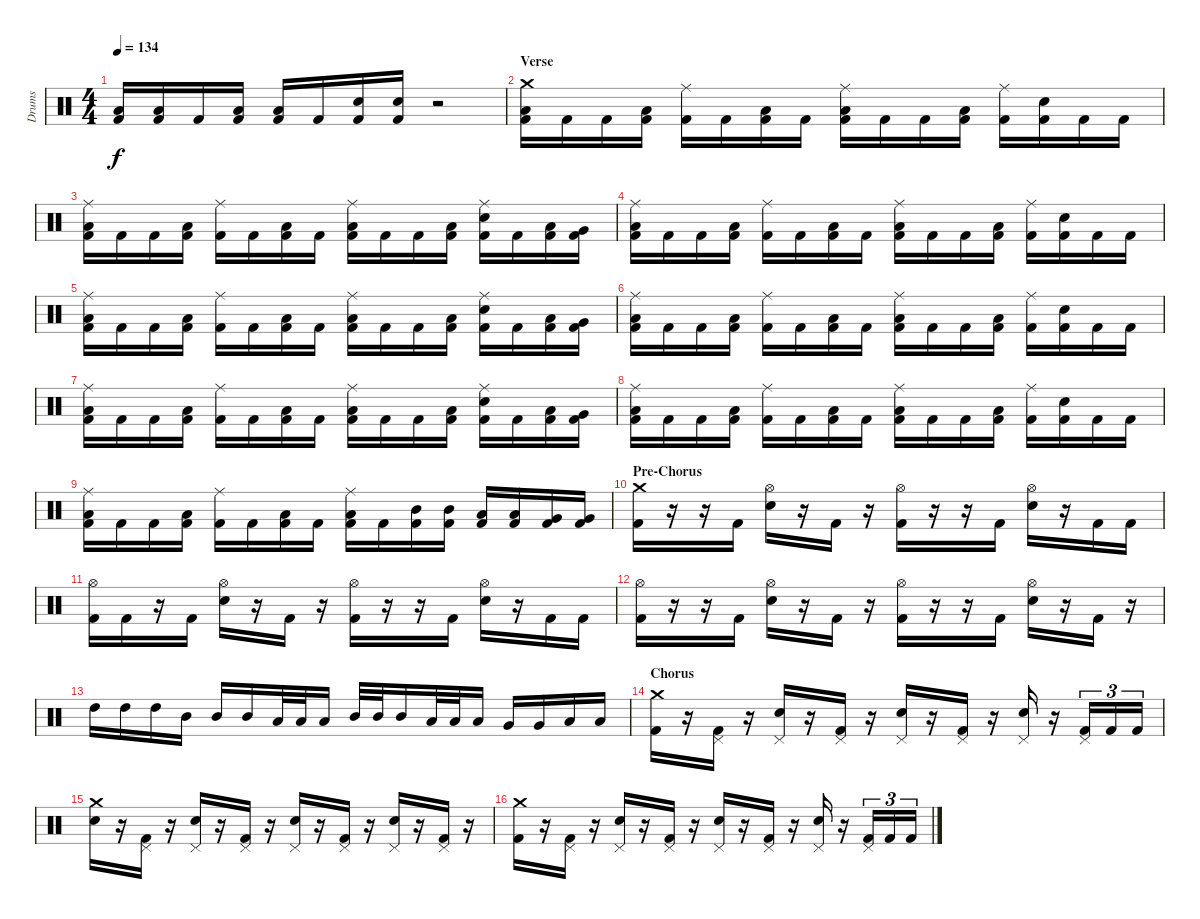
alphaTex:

\track ("Drums" "Drums") {instrument percussion}
\staff {score}
\articulation defaults
\ts (4 4)
\tempo 134
\clef neutral
\ks c
("Low Floor Tom (hit)" "Kick (hit) 2").16{dy f} ("Low Floor Tom (hit)" "Kick (hit) 2").16 "Kick (hit) 2".16 ("Low Floor Tom (hit)" "Kick (hit) 2").16 ("Low Floor Tom (hit)" "Kick (hit) 2").16 "Kick (hit) 2".16 ("Electric Snare (hit)" "Kick (hit) 2").16 ("Electric Snare (hit)" "Kick (hit) 2").16 r.2 |
\section ("" "Verse")
("Crash medium (hit)" "Low Floor Tom (hit)" "Kick (hit) 2").16 "Kick (hit) 2".16 "Kick (hit) 2".16 ("Low Floor Tom (hit)" "Kick (hit) 2").16 ("Ride (middle)" "Kick (hit) 2").16 "Kick (hit) 2".16 ("Low Floor Tom (hit)" "Kick (hit) 2").16 "Kick (hit) 2".16 ("Ride (middle)" "Low Floor Tom (hit)" "Kick (hit) 2").16 "Kick (hit) 2".16 "Kick (hit) 2".16 ("Low Floor Tom (hit)" "Kick (hit) 2").16 ("Ride (middle)" "Kick (hit) 2").16 ("Electric Snare (hit)" "Kick (hit) 2").16 "Kick (hit) 2".16 "Kick (hit) 2".16 |
("Ride (middle)" "Low Floor Tom (hit)" "Kick (hit) 2").16 "Kick (hit) 2".16 "Kick (hit) 2".16 ("Low Floor Tom (hit)" "Kick (hit) 2").16 ("Ride (middle)" "Kick (hit) 2").16 "Kick (hit) 2".16 ("Low Floor Tom (hit)" "Kick (hit) 2").16 "Kick (hit) 2".16 ("Ride (middle)" "Low Floor Tom (hit)" "Kick (hit) 2").16 "Kick (hit) 2".16 "Kick (hit) 2".16 ("Low Floor Tom (hit)" "Kick (hit) 2").16 ("Ride (middle)" "Electric Snare (hit)" "Kick (hit) 2").16 "Kick (hit) 2".16 ("Low Tom (hit)" "Kick (hit) 2").16 ("Very Low Tom (hit)" "Kick (hit) 2").16 |
("Ride (middle)" "Low Floor Tom (hit)" "Kick (hit) 2").16 "Kick (hit) 2".16 "Kick (hit) 2".16 ("Low Floor Tom (hit)" "Kick (hit) 2").16 ("Ride (middle)" "Kick (hit) 2").16 "Kick (hit) 2".16 ("Low Floor Tom (hit)" "Kick (hit) 2").16 "Kick (hit) 2".16 ("Ride (middle)" "Low Floor Tom (hit)" "Kick (hit) 2").16 "Kick (hit) 2".16 "Kick (hit) 2".16 ("Low Floor Tom (hit)" "Kick (hit) 2").16 ("Ride (middle)" "Kick (hit) 2").16 ("Electric Snare (hit)" "Kick (hit) 2").16 "Kick (hit) 2".16 "Kick (hit) 2".16 |
("Ride (middle)" "Low Floor Tom (hit)" "Kick (hit) 2").16 "Kick (hit) 2".16 "Kick (hit) 2".16 ("Low Floor Tom (hit)" "Kick (hit) 2").16 ("Ride (middle)" "Kick (hit) 2").16 "Kick (hit) 2".16 ("Low Floor Tom (hit)" "Kick (hit) 2").16 "Kick (hit) 2".16 ("Ride (middle)" "Low Floor Tom (hit)" "Kick (hit) 2").16 "Kick (hit) 2".16 "Kick (hit) 2".16 ("Low Floor Tom (hit)" "Kick (hit) 2").16 ("Ride (middle)" "Electric Snare (hit)" "Kick (hit) 2").16 "Kick (hit) 2".16 ("Low Tom (hit)" "Kick (hit) 2").16 ("Very Low Tom (hit)" "Kick (hit) 2").16 |
("Ride (middle)" "Low Floor Tom (hit)" "Kick (hit) 2").16 "Kick (hit) 2".16 "Kick (hit) 2".16 ("Low Floor Tom (hit)" "Kick (hit) 2").16 ("Ride (middle)" "Kick (hit) 2").16 "Kick (hit) 2".16 ("Low Floor Tom (hit)" "Kick (hit) 2").16 "Kick (hit) 2".16 ("Ride (middle)" "Low Floor Tom (hit)" "Kick (hit) 2").16 "Kick (hit) 2".16 "Kick (hit) 2".16 ("Low Floor Tom (hit)" "Kick (hit) 2").16 ("Ride (middle)" "Kick (hit) 2").16 ("Electric Snare (hit)" "Kick (hit) 2").16 "Kick (hit) 2".16 "Kick (hit) 2".16 |
("Ride (middle)" "Low Floor Tom (hit)" "Kick (hit) 2").16 "Kick (hit) 2".16 "Kick (hit) 2".16 ("Low Floor Tom (hit)" "Kick (hit) 2").16 ("Ride (middle)" "Kick (hit) 2").16 "Kick (hit) 2".16 ("Low Floor Tom (hit)" "Kick (hit) 2").16 "Kick (hit) 2".16 ("Ride (middle)" "Low Floor Tom (hit)" "Kick (hit) 2").16 "Kick (hit) 2".16 "Kick (hit) 2".16 ("Low Floor Tom (hit)" "Kick (hit) 2").16 ("Ride (middle)" "Electric Snare (hit)" "Kick (hit) 2").16 "Kick (hit) 2".16 ("Low Tom (hit)" "Kick (hit) 2").16 ("Very Low Tom (hit)" "Kick (hit) 2").16 |
("Ride (middle)" "Low Floor Tom (hit)" "Kick (hit) 2").16 "Kick (hit) 2".16 "Kick (hit) 2".16 ("Low Floor Tom (hit)" "Kick (hit) 2").16 ("Ride (middle)" "Kick (hit) 2").16 "Kick (hit) 2".16 ("Low Floor Tom (hit)" "Kick (hit) 2").16 "Kick (hit) 2".16 ("Ride (middle)" "Low Floor Tom (hit)" "Kick (hit) 2").16 "Kick (hit) 2".16 "Kick (hit) 2".16 ("Low Floor Tom (hit)" "Kick (hit) 2").16 ("Ride (middle)" "Kick (hit) 2").16 ("Electric Snare (hit)" "Kick (hit) 2").16 "Kick (hit) 2".16 "Kick (hit) 2".16 |
("Ride (middle)" "Low Floor Tom (hit)" "Kick (hit) 2").16 "Kick (hit) 2".16 "Kick (hit) 2".16 ("Low Floor Tom (hit)" "Kick (hit) 2").16 ("Ride (middle)" "Kick (hit) 2").16 "Kick (hit) 2".16 ("Low Floor Tom (hit)" "Kick (hit) 2").16 "Kick (hit) 2".16 ("Ride (middle)" "Low Floor Tom (hit)" "Kick (hit) 2").16 "Kick (hit) 2".16 ("Mid Tom (hit)" "Kick (hit) 2").16 ("Mid Tom (hit)" "Kick (hit) 2").16 ("Low Tom (hit)" "Kick (hit) 2").16 ("Low Tom (hit)" "Kick (hit) 2").16 ("Very Low Tom (hit)" "Kick (hit) 2").16 ("Very Low Tom (hit)" "Kick (hit) 2").16 |
\section ("" "Pre-Chorus")
("Crash medium (hit)" "Kick (hit) 2").16 r.16 r.16 "Kick (hit) 2".16 ("Hi-Hat (open)" "Electric Snare (hit)").16 r.16 "Kick (hit) 2".16 r.16 ("Hi-Hat (open)" "Kick (hit) 2").16 r.16 r.16 "Kick (hit) 2".16 ("Hi-Hat (open)" "Electric Snare (hit)").16 r.16 "Kick (hit) 2".16 "Kick (hit) 2".16 |
("Hi-Hat (open)" "Kick (hit) 2").16 "Kick (hit) 2".16 r.16 "Kick (hit) 2".16 ("Hi-Hat (open)" "Electric Snare (hit)").16 r.16 "Kick (hit) 2".16 r.16 ("Hi-Hat (open)" "Kick (hit) 2").16 r.16 r.16 "Kick (hit) 2".16 ("Hi-Hat (open)" "Electric Snare (hit)").16 r.16 "Kick (hit) 2".16 "Kick (hit) 2".16 |
("Hi-Hat (open)" "Kick (hit) 2").16 r.16 r.16 "Kick (hit) 2".16 ("Hi-Hat (open)" "Electric Snare (hit)").16 r.16 "Kick (hit) 2".16 r.16 ("Hi-Hat (open)" "Kick (hit) 2").16 r.16 r.16 "Kick (hit) 2".16 ("Hi-Hat (open)" "Electric Snare (hit)").16 r.16 "Kick (hit) 2".16 r.16 |
"High Tom (hit)".16 "High Tom (hit)".16 "High Tom (hit)".16 "Mid Tom (hit)".16 "Mid Tom (hit)".16 "Mid Tom (hit)".16 "Low Tom (hit)".32 "Low Tom (hit)".32 "Low Tom (hit)".16 "Mid Tom (hit)".32 "Mid Tom (hit)".32 "Mid Tom (hit)".16 "Low Tom (hit)".32 "Low Tom (hit)".32 "Low Tom (hit)".16 "Very Low Tom (hit)".16 "Very Low Tom (hit)".16 "Low Floor Tom (hit)".16 "Low Floor Tom (hit)".16 |
\section ("" "Chorus")
("Crash medium (hit)" "Kick (hit) 2").16 r.16 ("Pedal Hi-Hat (hit)" "Kick (hit) 2").16 r.16 ("Pedal Hi-Hat (hit)" "Electric Snare (hit)").16 r.16 ("Pedal Hi-Hat (hit)" "Kick (hit) 2").16 r.16 ("Pedal Hi-Hat (hit)" "Electric Snare (hit)").16 r.16 ("Pedal Hi-Hat (hit)" "Kick (hit) 2").16 r.16 ("Pedal Hi-Hat (hit)" "Electric Snare (hit)").16 r.16 ("Pedal Hi-Hat (hit)" "Kick (hit) 2").16{tu (3 2)} "Kick (hit) 2".16{tu (3 2)} "Kick (hit) 2".16{tu (3 2)} |
("Crash medium (hit)" "Electric Snare (hit)").16 r.16 ("Pedal Hi-Hat (hit)" "Kick (hit) 2").16 r.16 ("Pedal Hi-Hat (hit)" "Electric Snare (hit)").16 r.16 ("Pedal Hi-Hat (hit)" "Kick (hit) 2").16 r.16 ("Pedal Hi-Hat (hit)" "Electric Snare (hit)").16 r.16 ("Pedal Hi-Hat (hit)" "Kick (hit) 2").16 r.16 ("Pedal Hi-Hat (hit)" "Electric Snare (hit)").16 r.16 ("Pedal Hi-Hat (hit)" "Kick (hit) 2").16 r.16 |
("Crash medium (hit)" "Kick (hit) 2").16 r.16 ("Pedal Hi-Hat (hit)" "Kick (hit) 2").16 r.16 ("Pedal Hi-Hat (hit)" "Electric Snare (hit)").16 r.16 ("Pedal Hi-Hat (hit)" "Kick (hit) 2").16 r.16 ("Pedal Hi-Hat (hit)" "Electric Snare (hit)").16 r.16 ("Pedal Hi-Hat (hit)" "Kick (hit) 2").16 r.16 ("Pedal Hi-Hat (hit)" "Electric Snare (hit)").16 r.16 ("Pedal Hi-Hat (hit)" "Kick (hit) 2").16{tu (3 2)} "Kick (hit) 2".16{tu (3 2)} "Kick (hit) 2".16{tu (3 2)}
